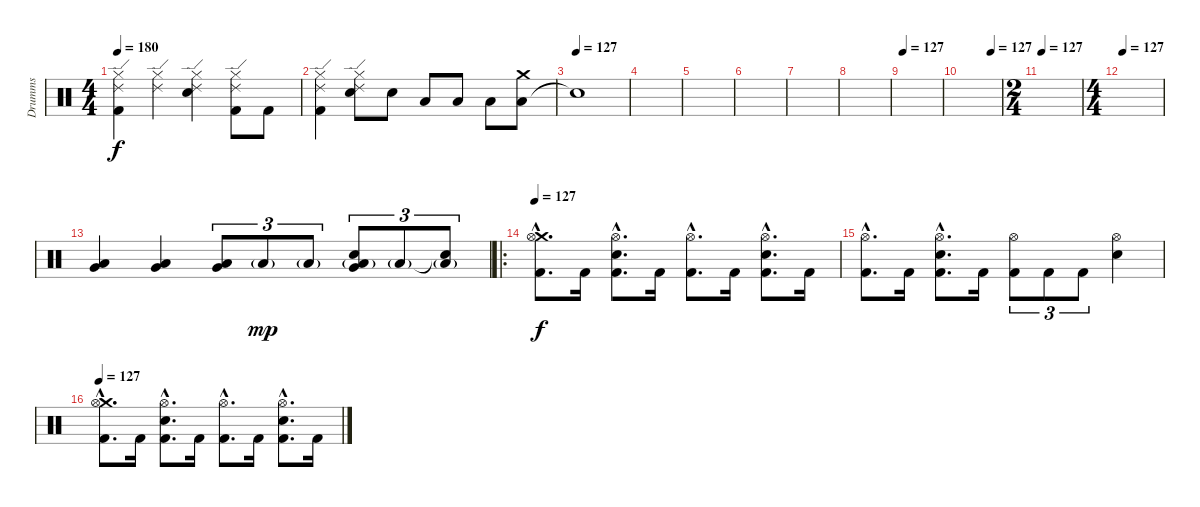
\track ("Drumms" "Drumms") {instrument percussion}
\staff {score}
\articulation defaults
\ts (4 4)
\tempo 180
\clef neutral
\ks c
("Kick (hit) 2" "Ride (edge) 2" "Hi-Hat (closed)").4{dy f} ("Ride (edge) 2" "Hi-Hat (closed)").4 ("Snare (hit) 2" "Ride (edge) 2" "Hi-Hat (closed)").4 ("Kick (hit) 2" "Ride (edge) 2" "Hi-Hat (closed)").8 "Kick (hit) 2".8 |
("Kick (hit) 2" "Ride (edge) 2" "Hi-Hat (closed)").4 ("Snare (hit) 2" "Ride (edge) 2" "Hi-Hat (closed)").8 "Snare (hit) 2".8 "Low Tom (hit)".8 "Low Tom (hit)".8 "Low Floor Tom (hit)".8 ("Low Floor Tom (hit)" "Crash medium (hit)").8 |
\tempo (127)
"Snare (hit)"{t}.1 |
|
|
|
|
|
\tempo 127
|
\tempo (127 0.75)
|
\ts (2 4)
\tempo 127
|
\ts (4 4)
\tempo 127
|
("Very Low Tom (hit)" "Low Tom (hit)").4 ("Very Low Tom (hit)" "Low Tom (hit)").4 ("Very Low Tom (hit)" "Low Tom (hit)").8{tu (3 2)} "Low Floor Tom (hit)"{g}.8{tu (3 2) dy mp} "Low Floor Tom (hit)"{g}.8{tu (3 2)} ("Snare (hit) 2" "Very Low Tom (hit)" "Low Floor Tom (hit)"{g}).8{tu (3 2)} "Low Floor Tom (hit)"{g}.8{tu (3 2)} ("Snare (hit)"{t} "Low Floor Tom (hit)"{g}).8{tu (3 2)} |
\ro
\tempo 127
("Kick (hit) 2"{hac} "Crash medium (hit)"{hac} "Hi-Hat (open)"{hac}).8{d dy f} "Kick (hit) 2".16 ("Kick (hit) 2"{hac} "Snare (hit) 2"{hac} "Hi-Hat (open)"{hac}).8{d} "Kick (hit) 2".16 ("Kick (hit) 2"{hac} "Hi-Hat (open)"{hac}).8{d} "Kick (hit) 2".16 ("Kick (hit) 2"{hac} "Snare (hit) 2"{hac} "Hi-Hat (open)"{hac}).8{d} "Kick (hit) 2".16 |
("Kick (hit) 2"{hac} "Hi-Hat (open)"{hac}).8{d} "Kick (hit) 2".16 ("Kick (hit) 2"{hac} "Snare (hit) 2"{hac} "Hi-Hat (open)"{hac}).8{d} "Kick (hit) 2".16 ("Kick (hit) 2" "Hi-Hat (open)").8{tu (3 2)} "Kick (hit) 2".8{tu (3 2)} "Kick (hit) 2".8{tu (3 2)} ("Snare (hit) 2" "Hi-Hat (open)").4 |
\tempo 127
("Kick (hit) 2"{hac} "Crash medium (hit)"{hac} "Hi-Hat (open)"{hac}).8{d} "Kick (hit) 2".16 ("Kick (hit) 2"{hac} "Snare (hit) 2"{hac} "Hi-Hat (open)"{hac}).8{d} "Kick (hit) 2".16 ("Kick (hit) 2"{hac} "Hi-Hat (open)"{hac}).8{d} "Kick (hit) 2".16 ("Kick (hit) 2"{hac} "Snare (hit) 2"{hac} "Hi-Hat (open)"{hac}).8{d} "Kick (hit) 2".16
